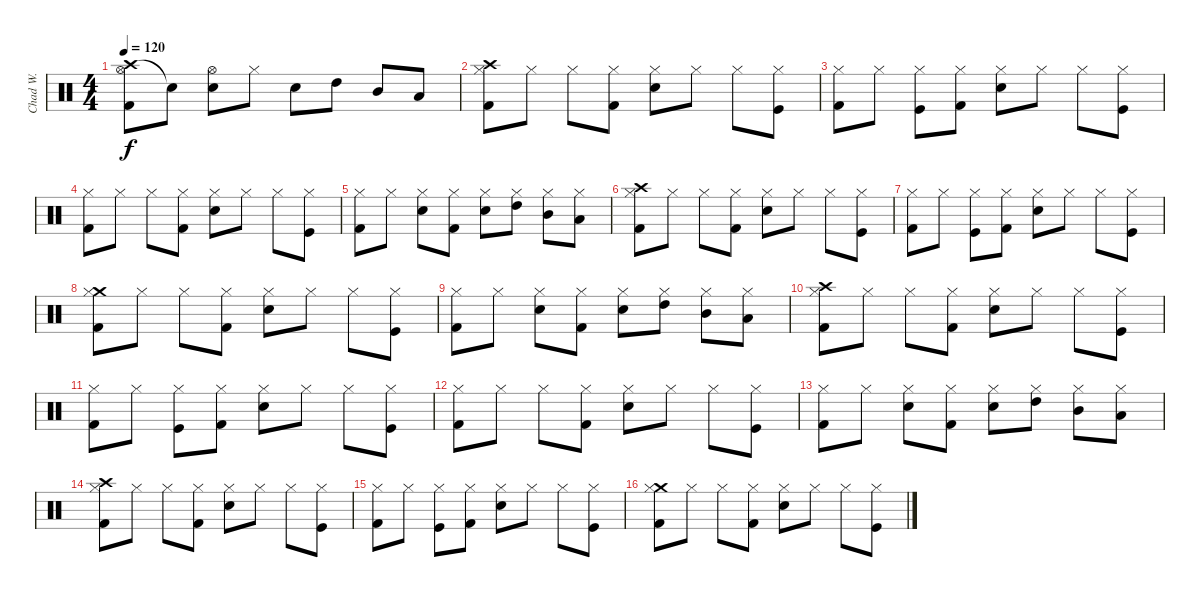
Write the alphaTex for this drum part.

\track ("Chad W." "Chad W.") {instrument percussion bank 177}
\staff {score}
\articulation defaults
\ts (4 4)
\tempo 120
\clef neutral
\ks c
("Crash high (hit)" "Hi-Hat (open)" "Kick (hit) 2").8{dy f} "Snare (hit)"{t}.8 ("Hi-Hat (open)" "Electric Snare (hit)").8 "Hi-Hat (closed)".8 "Electric Snare (hit)".8 "High Tom (hit)".8 "Mid Tom (hit)".8 "Low Tom (hit)".8 |
("Crash high (hit)" "Hi-Hat (closed)" "Kick (hit) 2").8 "Hi-Hat (closed)".8 "Hi-Hat (closed)".8 ("Hi-Hat (closed)" "Kick (hit) 2").8 ("Hi-Hat (closed)" "Electric Snare (hit)").8 "Hi-Hat (closed)".8 "Hi-Hat (closed)".8 ("Hi-Hat (closed)" "Kick (hit)").8 |
("Hi-Hat (closed)" "Kick (hit) 2").8 "Hi-Hat (closed)".8 ("Hi-Hat (closed)" "Kick (hit)").8 ("Hi-Hat (closed)" "Kick (hit) 2").8 ("Hi-Hat (closed)" "Electric Snare (hit)").8 "Hi-Hat (closed)".8 "Hi-Hat (closed)".8 ("Hi-Hat (closed)" "Kick (hit)").8 |
("Hi-Hat (closed)" "Kick (hit) 2").8 "Hi-Hat (closed)".8 "Hi-Hat (closed)".8 ("Hi-Hat (closed)" "Kick (hit) 2").8 ("Hi-Hat (closed)" "Electric Snare (hit)").8 "Hi-Hat (closed)".8 "Hi-Hat (closed)".8 ("Hi-Hat (closed)" "Kick (hit)").8 |
("Hi-Hat (closed)" "Kick (hit) 2").8 "Hi-Hat (closed)".8 ("Hi-Hat (closed)" "Electric Snare (hit)").8 ("Hi-Hat (closed)" "Kick (hit) 2").8 ("Hi-Hat (closed)" "Electric Snare (hit)").8 ("Hi-Hat (closed)" "High Tom (hit)").8 ("Hi-Hat (closed)" "Mid Tom (hit)").8 ("Hi-Hat (closed)" "Low Tom (hit)").8 |
("Crash high (hit)" "Hi-Hat (closed)" "Kick (hit) 2").8 "Hi-Hat (closed)".8 "Hi-Hat (closed)".8 ("Hi-Hat (closed)" "Kick (hit) 2").8 ("Hi-Hat (closed)" "Electric Snare (hit)").8 "Hi-Hat (closed)".8 "Hi-Hat (closed)".8 ("Hi-Hat (closed)" "Kick (hit)").8 |
("Hi-Hat (closed)" "Kick (hit) 2").8 "Hi-Hat (closed)".8 ("Hi-Hat (closed)" "Kick (hit)").8 ("Hi-Hat (closed)" "Kick (hit) 2").8 ("Hi-Hat (closed)" "Electric Snare (hit)").8 "Hi-Hat (closed)".8 "Hi-Hat (closed)".8 ("Hi-Hat (closed)" "Kick (hit)").8 |
("Crash medium (hit)" "Hi-Hat (closed)" "Kick (hit) 2").8 "Hi-Hat (closed)".8 "Hi-Hat (closed)".8 ("Hi-Hat (closed)" "Kick (hit) 2").8 ("Hi-Hat (closed)" "Electric Snare (hit)").8 "Hi-Hat (closed)".8 "Hi-Hat (closed)".8 ("Hi-Hat (closed)" "Kick (hit)").8 |
("Hi-Hat (closed)" "Kick (hit) 2").8 "Hi-Hat (closed)".8 ("Hi-Hat (closed)" "Electric Snare (hit)").8 ("Hi-Hat (closed)" "Kick (hit) 2").8 ("Hi-Hat (closed)" "Electric Snare (hit)").8 ("Hi-Hat (closed)" "High Tom (hit)").8 ("Hi-Hat (closed)" "Mid Tom (hit)").8 ("Hi-Hat (closed)" "Low Tom (hit)").8 |
("Crash high (hit)" "Hi-Hat (closed)" "Kick (hit) 2").8 "Hi-Hat (closed)".8 "Hi-Hat (closed)".8 ("Hi-Hat (closed)" "Kick (hit) 2").8 ("Hi-Hat (closed)" "Electric Snare (hit)").8 "Hi-Hat (closed)".8 "Hi-Hat (closed)".8 ("Hi-Hat (closed)" "Kick (hit)").8 |
("Hi-Hat (closed)" "Kick (hit) 2").8 "Hi-Hat (closed)".8 ("Hi-Hat (closed)" "Kick (hit)").8 ("Hi-Hat (closed)" "Kick (hit) 2").8 ("Hi-Hat (closed)" "Electric Snare (hit)").8 "Hi-Hat (closed)".8 "Hi-Hat (closed)".8 ("Hi-Hat (closed)" "Kick (hit)").8 |
("Hi-Hat (closed)" "Kick (hit) 2").8 "Hi-Hat (closed)".8 "Hi-Hat (closed)".8 ("Hi-Hat (closed)" "Kick (hit) 2").8 ("Hi-Hat (closed)" "Electric Snare (hit)").8 "Hi-Hat (closed)".8 "Hi-Hat (closed)".8 ("Hi-Hat (closed)" "Kick (hit)").8 |
("Hi-Hat (closed)" "Kick (hit) 2").8 "Hi-Hat (closed)".8 ("Hi-Hat (closed)" "Electric Snare (hit)").8 ("Hi-Hat (closed)" "Kick (hit) 2").8 ("Hi-Hat (closed)" "Electric Snare (hit)").8 ("Hi-Hat (closed)" "High Tom (hit)").8 ("Hi-Hat (closed)" "Mid Tom (hit)").8 ("Hi-Hat (closed)" "Low Tom (hit)").8 |
("Crash high (hit)" "Hi-Hat (closed)" "Kick (hit) 2").8 "Hi-Hat (closed)".8 "Hi-Hat (closed)".8 ("Hi-Hat (closed)" "Kick (hit) 2").8 ("Hi-Hat (closed)" "Electric Snare (hit)").8 "Hi-Hat (closed)".8 "Hi-Hat (closed)".8 ("Hi-Hat (closed)" "Kick (hit)").8 |
("Hi-Hat (closed)" "Kick (hit) 2").8 "Hi-Hat (closed)".8 ("Hi-Hat (closed)" "Kick (hit)").8 ("Hi-Hat (closed)" "Kick (hit) 2").8 ("Hi-Hat (closed)" "Electric Snare (hit)").8 "Hi-Hat (closed)".8 "Hi-Hat (closed)".8 ("Hi-Hat (closed)" "Kick (hit)").8 |
("Crash medium (hit)" "Hi-Hat (closed)" "Kick (hit) 2").8 "Hi-Hat (closed)".8 "Hi-Hat (closed)".8 ("Hi-Hat (closed)" "Kick (hit) 2").8 ("Hi-Hat (closed)" "Electric Snare (hit)").8 "Hi-Hat (closed)".8 "Hi-Hat (closed)".8 ("Hi-Hat (closed)" "Kick (hit)").8
